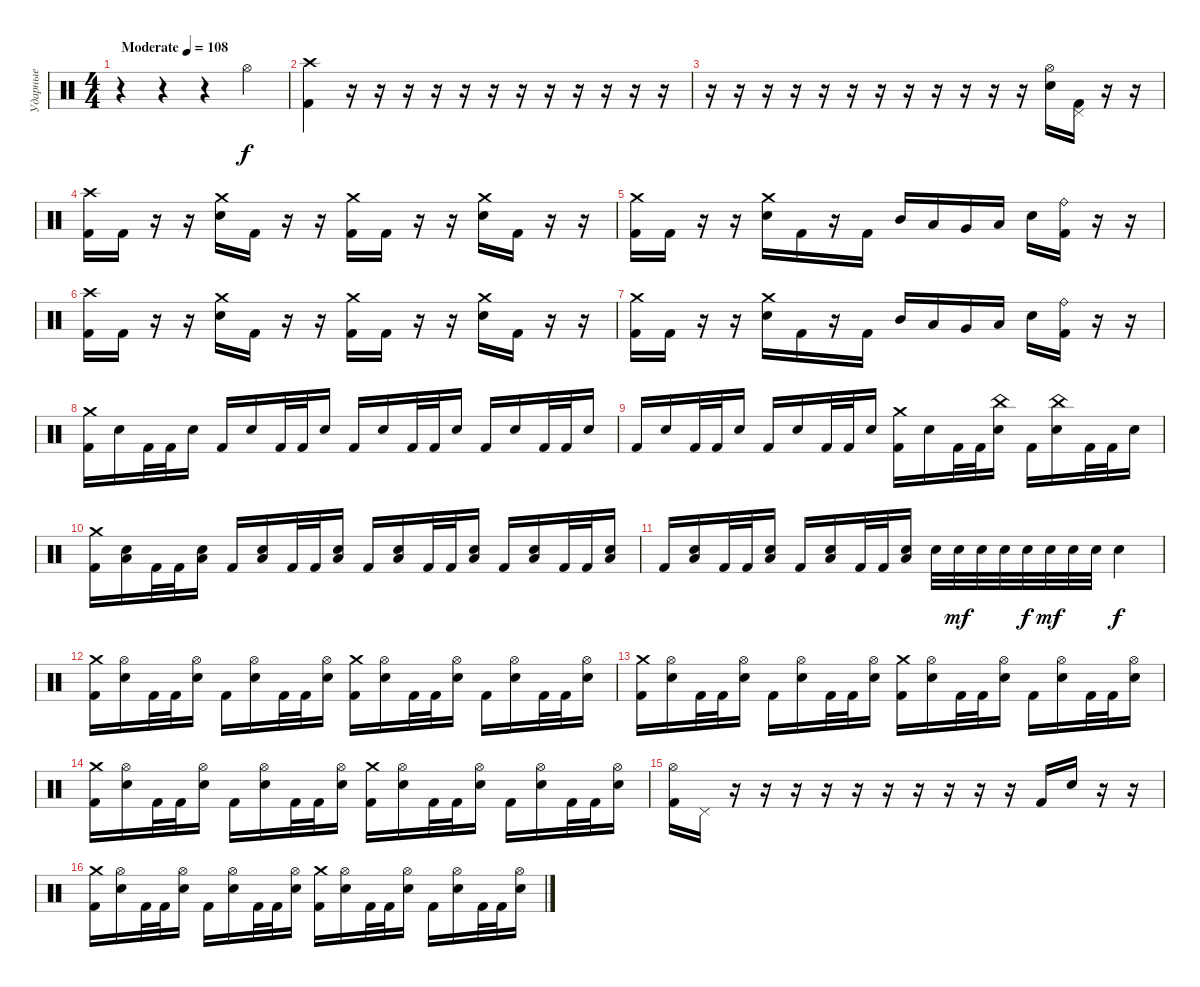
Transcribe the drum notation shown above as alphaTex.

\track ("Ударные" "Ударные") {instrument percussion}
\staff {score}
\articulation defaults
\ts (4 4)
\tempo (108 "Moderate")
\clef neutral
\ks c
r.4{dy f} r.4 r.4 "Hi-Hat (open)".4 |
("Crash high (hit)" "Kick (hit) 2").4 r.16 r.16 r.16 r.16 r.16 r.16 r.16 r.16 r.16 r.16 r.16 r.16 |
r.16 r.16 r.16 r.16 r.16 r.16 r.16 r.16 r.16 r.16 r.16 r.16 ("Hi-Hat (open)" "Electric Snare (hit)").16 ("Pedal Hi-Hat (hit)" "Kick (hit) 2").16 r.16 r.16 |
("Crash high (hit)" "Kick (hit) 2").16 "Kick (hit) 2".16 r.16 r.16 ("Crash medium (hit)" "Electric Snare (hit)").16 "Kick (hit) 2".16 r.16 r.16 ("Crash medium (hit)" "Kick (hit) 2").16 "Kick (hit) 2".16 r.16 r.16 ("Crash medium (hit)" "Electric Snare (hit)").16 "Kick (hit) 2".16 r.16 r.16 |
("Crash medium (hit)" "Kick (hit) 2").16 "Kick (hit) 2".16 r.16 r.16 ("Crash medium (hit)" "Electric Snare (hit)").16 "Kick (hit) 2".16 r.16 "Kick (hit) 2".16 "Mid Tom (hit)".16 "Low Tom (hit)".16 "Very Low Tom (hit)".16 "Low Floor Tom (hit)".16 "Electric Snare (hit)".16 ("Ride (bell)" "Kick (hit) 2").16 r.16 r.16 |
("Crash high (hit)" "Kick (hit) 2").16 "Kick (hit) 2".16 r.16 r.16 ("Crash medium (hit)" "Electric Snare (hit)").16 "Kick (hit) 2".16 r.16 r.16 ("Crash medium (hit)" "Kick (hit) 2").16 "Kick (hit) 2".16 r.16 r.16 ("Crash medium (hit)" "Electric Snare (hit)").16 "Kick (hit) 2".16 r.16 r.16 |
("Crash medium (hit)" "Kick (hit) 2").16 "Kick (hit) 2".16 r.16 r.16 ("Crash medium (hit)" "Electric Snare (hit)").16 "Kick (hit) 2".16 r.16 "Kick (hit) 2".16 "Mid Tom (hit)".16 "Low Tom (hit)".16 "Very Low Tom (hit)".16 "Low Floor Tom (hit)".16 "Electric Snare (hit)".16 ("Ride (bell)" "Kick (hit) 2").16 r.16 r.16 |
("Crash medium (hit)" "Kick (hit) 2").16 "Electric Snare (hit)".16 "Kick (hit) 2".32 "Kick (hit) 2".32 "Electric Snare (hit)".16 "Kick (hit) 2".16 "Electric Snare (hit)".16 "Kick (hit) 2".32 "Kick (hit) 2".32 "Electric Snare (hit)".16 "Kick (hit) 2".16 "Electric Snare (hit)".16 "Kick (hit) 2".32 "Kick (hit) 2".32 "Electric Snare (hit)".16 "Kick (hit) 2".16 "Electric Snare (hit)".16 "Kick (hit) 2".32 "Kick (hit) 2".32 "Electric Snare (hit)".16 |
"Kick (hit) 2".16 "Electric Snare (hit)".16 "Kick (hit) 2".32 "Kick (hit) 2".32 "Electric Snare (hit)".16 "Kick (hit) 2".16 "Electric Snare (hit)".16 "Kick (hit) 2".32 "Kick (hit) 2".32 "Electric Snare (hit)".16 ("Crash medium (hit)" "Kick (hit) 2").16 "Electric Snare (hit)".16 "Kick (hit) 2".32 "Kick (hit) 2".32 ("China (hit)" "Electric Snare (hit)").16 "Kick (hit) 2".16 ("China (hit)" "Electric Snare (hit)").16 "Kick (hit) 2".32 "Kick (hit) 2".32 "Electric Snare (hit)".16 |
("Crash medium (hit)" "Kick (hit) 2").16 ("Low Floor Tom (hit)" "Electric Snare (hit)").16 "Kick (hit) 2".32 "Kick (hit) 2".32 ("Low Floor Tom (hit)" "Electric Snare (hit)").16 "Kick (hit) 2".16 ("Low Floor Tom (hit)" "Electric Snare (hit)").16 "Kick (hit) 2".32 "Kick (hit) 2".32 ("Low Floor Tom (hit)" "Electric Snare (hit)").16 "Kick (hit) 2".16 ("Low Floor Tom (hit)" "Electric Snare (hit)").16 "Kick (hit) 2".32 "Kick (hit) 2".32 ("Low Floor Tom (hit)" "Electric Snare (hit)").16 "Kick (hit) 2".16 ("Low Floor Tom (hit)" "Electric Snare (hit)").16 "Kick (hit) 2".32 "Kick (hit) 2".32 ("Low Floor Tom (hit)" "Electric Snare (hit)").16 |
"Kick (hit) 2".16 ("Low Floor Tom (hit)" "Electric Snare (hit)").16 "Kick (hit) 2".32 "Kick (hit) 2".32 ("Low Floor Tom (hit)" "Electric Snare (hit)").16 "Kick (hit) 2".16 ("Low Floor Tom (hit)" "Electric Snare (hit)").16 "Kick (hit) 2".32 "Kick (hit) 2".32 ("Low Floor Tom (hit)" "Electric Snare (hit)").16 "Electric Snare (hit)".32 "Electric Snare (hit)".32{dy mf} "Electric Snare (hit)".32 "Electric Snare (hit)".32 "Electric Snare (hit)".32{dy f} "Electric Snare (hit)".32{dy mf} "Electric Snare (hit)".32 "Electric Snare (hit)".32 "Electric Snare (hit)".4{dy f} |
("Crash medium (hit)" "Kick (hit) 2").16 ("Hi-Hat (open)" "Electric Snare (hit)").16 "Kick (hit) 2".32 "Kick (hit) 2".32 ("Hi-Hat (open)" "Electric Snare (hit)").16 "Kick (hit) 2".16 ("Hi-Hat (open)" "Electric Snare (hit)").16 "Kick (hit) 2".32 "Kick (hit) 2".32 ("Hi-Hat (open)" "Electric Snare (hit)").16 ("Crash medium (hit)" "Kick (hit) 2").16 ("Hi-Hat (open)" "Electric Snare (hit)").16 "Kick (hit) 2".32 "Kick (hit) 2".32 ("Hi-Hat (open)" "Electric Snare (hit)").16 "Kick (hit) 2".16 ("Hi-Hat (open)" "Electric Snare (hit)").16 "Kick (hit) 2".32 "Kick (hit) 2".32 ("Hi-Hat (open)" "Electric Snare (hit)").16 |
("Crash medium (hit)" "Kick (hit) 2").16 ("Hi-Hat (open)" "Electric Snare (hit)").16 "Kick (hit) 2".32 "Kick (hit) 2".32 ("Hi-Hat (open)" "Electric Snare (hit)").16 "Kick (hit) 2".16 ("Hi-Hat (open)" "Electric Snare (hit)").16 "Kick (hit) 2".32 "Kick (hit) 2".32 ("Hi-Hat (open)" "Electric Snare (hit)").16 ("Crash medium (hit)" "Kick (hit) 2").16 ("Hi-Hat (open)" "Electric Snare (hit)").16 "Kick (hit) 2".32 "Kick (hit) 2".32 ("Hi-Hat (open)" "Electric Snare (hit)").16 "Kick (hit) 2".16 ("Hi-Hat (open)" "Electric Snare (hit)").16 "Kick (hit) 2".32 "Kick (hit) 2".32 ("Hi-Hat (open)" "Electric Snare (hit)").16 |
("Crash medium (hit)" "Kick (hit) 2").16 ("Hi-Hat (open)" "Electric Snare (hit)").16 "Kick (hit) 2".32 "Kick (hit) 2".32 ("Hi-Hat (open)" "Electric Snare (hit)").16 "Kick (hit) 2".16 ("Hi-Hat (open)" "Electric Snare (hit)").16 "Kick (hit) 2".32 "Kick (hit) 2".32 ("Hi-Hat (open)" "Electric Snare (hit)").16 ("Crash medium (hit)" "Kick (hit) 2").16 ("Hi-Hat (open)" "Electric Snare (hit)").16 "Kick (hit) 2".32 "Kick (hit) 2".32 ("Hi-Hat (open)" "Electric Snare (hit)").16 "Kick (hit) 2".16 ("Hi-Hat (open)" "Electric Snare (hit)").16 "Kick (hit) 2".32 "Kick (hit) 2".32 ("Hi-Hat (open)" "Electric Snare (hit)").16 |
("Hi-Hat (open)" "Kick (hit) 2").16 "Pedal Hi-Hat (hit)".16 r.16 r.16 r.16 r.16 r.16 r.16 r.16 r.16 r.16 r.16 "Kick (hit) 2".16 "Electric Snare (hit)".16 r.16 r.16 |
("Crash medium (hit)" "Kick (hit) 2").16 ("Hi-Hat (open)" "Electric Snare (hit)").16 "Kick (hit) 2".32 "Kick (hit) 2".32 ("Hi-Hat (open)" "Electric Snare (hit)").16 "Kick (hit) 2".16 ("Hi-Hat (open)" "Electric Snare (hit)").16 "Kick (hit) 2".32 "Kick (hit) 2".32 ("Hi-Hat (open)" "Electric Snare (hit)").16 ("Crash medium (hit)" "Kick (hit) 2").16 ("Hi-Hat (open)" "Electric Snare (hit)").16 "Kick (hit) 2".32 "Kick (hit) 2".32 ("Hi-Hat (open)" "Electric Snare (hit)").16 "Kick (hit) 2".16 ("Hi-Hat (open)" "Electric Snare (hit)").16 "Kick (hit) 2".32 "Kick (hit) 2".32 ("Hi-Hat (open)" "Electric Snare (hit)").16
